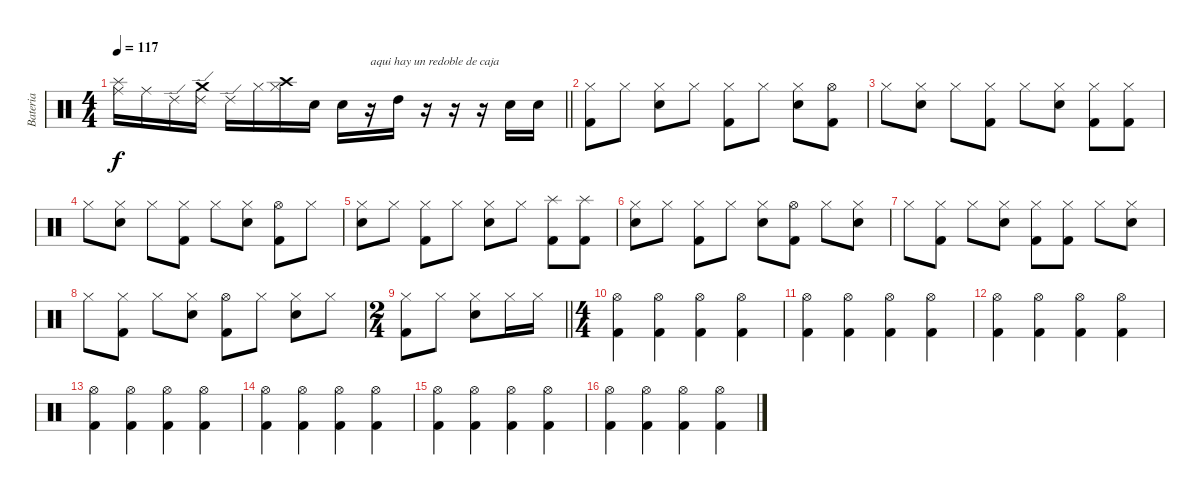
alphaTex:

\track ("Bateria" "Bateria") {instrument percussion}
\staff
\articulation defaults
\ts (4 4)
\tempo 117
\clef neutral
\barLineRight lightlight
\ks c
("Splash (hit)" "Ride (middle)").16{dy f} "Ride (middle)".16 "Ride (edge) 2".16 ("Crash medium (hit)" "Ride (edge) 2").16 "Ride (edge) 2".16 "Hi-Hat (closed)".16 ("Crash high (hit)" "Hi-Hat (closed)").16 "Snare (hit) 2".16 "Snare (hit) 2".16 r.16{txt "aqui hay un redoble de caja"} "High Tom (hit)".16 r.16 r.16 r.16 "Snare (hit) 2".16 "Snare (hit) 2".16 |
("Hi-Hat (closed)" "Kick (hit) 2").8 "Hi-Hat (closed)".8 ("Hi-Hat (closed)" "Snare (hit) 2").8 "Hi-Hat (closed)".8 ("Hi-Hat (closed)" "Kick (hit) 2").8 "Hi-Hat (closed)".8 ("Hi-Hat (closed)" "Snare (hit) 2").8 ("Hi-Hat (open)" "Kick (hit) 2").8 |
"Hi-Hat (closed)".8 ("Hi-Hat (closed)" "Snare (hit) 2").8 "Hi-Hat (closed)".8 ("Hi-Hat (closed)" "Kick (hit) 2").8 "Hi-Hat (closed)".8 ("Hi-Hat (closed)" "Snare (hit) 2").8 ("Hi-Hat (closed)" "Kick (hit) 2").8 ("Hi-Hat (closed)" "Kick (hit) 2").8 |
"Hi-Hat (closed)".8 ("Hi-Hat (closed)" "Snare (hit) 2").8 "Hi-Hat (closed)".8 ("Hi-Hat (closed)" "Kick (hit) 2").8 "Hi-Hat (closed)".8 ("Hi-Hat (closed)" "Snare (hit) 2").8 ("Hi-Hat (open)" "Kick (hit) 2").8 "Hi-Hat (closed)".8 |
("Hi-Hat (closed)" "Snare (hit) 2").8 "Hi-Hat (closed)".8 ("Hi-Hat (closed)" "Kick (hit) 2").8 "Hi-Hat (closed)".8 ("Hi-Hat (closed)" "Snare (hit) 2").8 "Hi-Hat (closed)".8 ("Splash (hit)" "Kick (hit) 2").8 ("Splash (hit)" "Kick (hit) 2").8 |
("Hi-Hat (closed)" "Snare (hit) 2").8 "Hi-Hat (closed)".8 ("Hi-Hat (closed)" "Kick (hit) 2").8 "Hi-Hat (closed)".8 ("Hi-Hat (closed)" "Snare (hit) 2").8 ("Hi-Hat (open)" "Kick (hit) 2").8 "Hi-Hat (closed)".8 ("Hi-Hat (closed)" "Snare (hit) 2").8 |
"Hi-Hat (closed)".8 ("Hi-Hat (closed)" "Kick (hit) 2").8 "Hi-Hat (closed)".8 ("Hi-Hat (closed)" "Snare (hit) 2").8 ("Hi-Hat (closed)" "Kick (hit) 2").8 ("Hi-Hat (closed)" "Kick (hit) 2").8 "Hi-Hat (closed)".8 ("Hi-Hat (closed)" "Snare (hit) 2").8 |
"Hi-Hat (closed)".8 ("Hi-Hat (closed)" "Kick (hit) 2").8 "Hi-Hat (closed)".8 ("Hi-Hat (closed)" "Snare (hit) 2").8 ("Hi-Hat (open)" "Kick (hit) 2").8 "Hi-Hat (closed)".8 ("Hi-Hat (closed)" "Snare (hit) 2").8 "Hi-Hat (closed)".8 |
\ts (2 4)
\barLineRight lightlight
("Hi-Hat (closed)" "Kick (hit) 2").8 "Hi-Hat (closed)".8 ("Hi-Hat (closed)" "Snare (hit) 2").8 "Hi-Hat (closed)".16 "Hi-Hat (closed)".16 |
\ts (4 4)
("Hi-Hat (open)" "Kick (hit) 2").4 ("Hi-Hat (open)" "Kick (hit) 2").4 ("Hi-Hat (open)" "Kick (hit) 2").4 ("Hi-Hat (open)" "Kick (hit) 2").4 |
("Hi-Hat (open)" "Kick (hit) 2").4 ("Hi-Hat (open)" "Kick (hit) 2").4 ("Hi-Hat (open)" "Kick (hit) 2").4 ("Hi-Hat (open)" "Kick (hit) 2").4 |
("Hi-Hat (open)" "Kick (hit) 2").4 ("Hi-Hat (open)" "Kick (hit) 2").4 ("Hi-Hat (open)" "Kick (hit) 2").4 ("Hi-Hat (open)" "Kick (hit) 2").4 |
("Hi-Hat (open)" "Kick (hit) 2").4 ("Hi-Hat (open)" "Kick (hit) 2").4 ("Hi-Hat (open)" "Kick (hit) 2").4 ("Hi-Hat (open)" "Kick (hit) 2").4 |
("Hi-Hat (open)" "Kick (hit) 2").4 ("Hi-Hat (open)" "Kick (hit) 2").4 ("Hi-Hat (open)" "Kick (hit) 2").4 ("Hi-Hat (open)" "Kick (hit) 2").4 |
("Hi-Hat (open)" "Kick (hit) 2").4 ("Hi-Hat (open)" "Kick (hit) 2").4 ("Hi-Hat (open)" "Kick (hit) 2").4 ("Hi-Hat (open)" "Kick (hit) 2").4 |
("Hi-Hat (open)" "Kick (hit) 2").4 ("Hi-Hat (open)" "Kick (hit) 2").4 ("Hi-Hat (open)" "Kick (hit) 2").4 ("Hi-Hat (open)" "Kick (hit) 2").4
